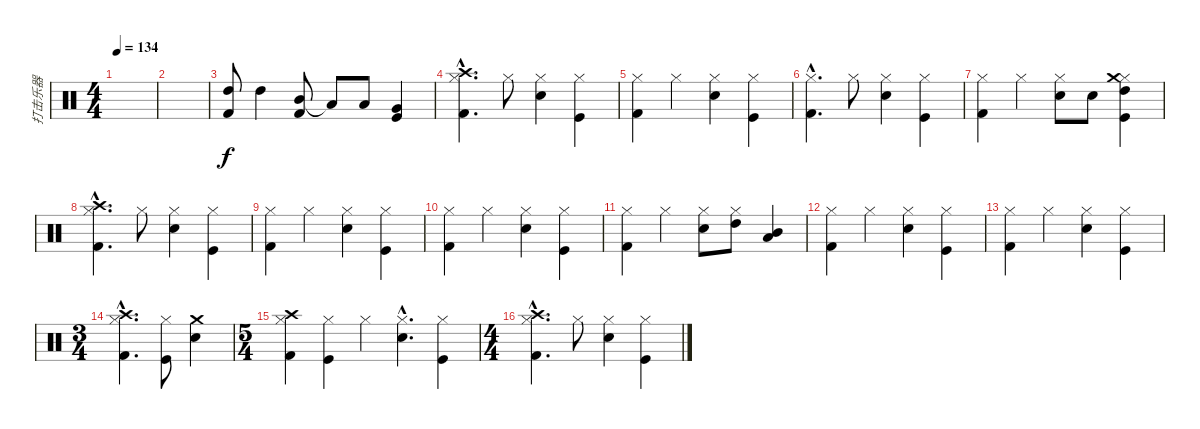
\track ("打击乐器" "打击乐器") {instrument percussion}
\staff {score}
\articulation defaults
\ts (4 4)
\tempo 134
\clef neutral
\ks c
|
|
("High Tom (hit)" "Kick (hit) 2").8 "High Tom (hit)".4 ("Mid Tom (hit)" "Kick (hit) 2").8 "Low Tom (hit)"{t}.8 "Low Tom (hit)".8 ("Very Low Tom (hit)" "Kick (hit)").4 |
("Kick (hit) 2"{hac} "Hi-Hat (closed)"{hac} "Crash high (hit)"{hac}).4{d} "Hi-Hat (closed)".8 ("Snare (hit) 2" "Hi-Hat (closed)").4 ("Hi-Hat (closed)" "Kick (hit)").4 |
("Hi-Hat (closed)" "Kick (hit) 2").4 "Hi-Hat (closed)".4 ("Hi-Hat (closed)" "Snare (hit) 2").4 ("Kick (hit)" "Hi-Hat (closed)").4 |
("Hi-Hat (closed)"{hac} "Kick (hit) 2"{hac}).4{d} "Hi-Hat (closed)".8 ("Hi-Hat (closed)" "Snare (hit) 2").4 ("Kick (hit)" "Hi-Hat (closed)").4 |
("Hi-Hat (closed)" "Kick (hit) 2").4 "Hi-Hat (closed)".4 ("Hi-Hat (closed)" "Snare (hit) 2").8 "Snare (hit) 2".8 ("Kick (hit)" "Hi-Hat (closed)" "High Tom (hit)" "Crash medium (hit)").4 |
("Kick (hit) 2"{hac} "Hi-Hat (closed)"{hac} "Crash high (hit)"{hac}).4{d} "Hi-Hat (closed)".8 ("Snare (hit) 2" "Hi-Hat (closed)").4 ("Hi-Hat (closed)" "Kick (hit)").4 |
("Hi-Hat (closed)" "Kick (hit) 2").4 "Hi-Hat (closed)".4 ("Hi-Hat (closed)" "Snare (hit) 2").4 ("Kick (hit)" "Hi-Hat (closed)").4 |
("Hi-Hat (closed)" "Kick (hit) 2").4 "Hi-Hat (closed)".4 ("Hi-Hat (closed)" "Snare (hit) 2").4 ("Kick (hit)" "Hi-Hat (closed)").4 |
("Kick (hit) 2" "Hi-Hat (closed)").4 "Hi-Hat (closed)".4 ("Snare (hit) 2" "Hi-Hat (closed)").8 ("High Tom (hit)" "Hi-Hat (closed)").8 ("Mid Tom (hit)" "Low Tom (hit)").4 |
("Kick (hit) 2" "Hi-Hat (closed)").4 "Hi-Hat (closed)".4 ("Snare (hit) 2" "Hi-Hat (closed)").4 ("Hi-Hat (closed)" "Kick (hit)").4 |
("Kick (hit) 2" "Hi-Hat (closed)").4 "Hi-Hat (closed)".4 ("Snare (hit) 2" "Hi-Hat (closed)").4 ("Hi-Hat (closed)" "Kick (hit)").4 |
\ts (3 4)
("Kick (hit) 2"{hac} "Hi-Hat (closed)"{hac} "Crash high (hit)"{hac}).4{d} ("Kick (hit)" "Hi-Hat (closed)").8 ("Snare (hit) 2" "Crash medium (hit)").4 |
\ts (5 4)
("Hi-Hat (closed)" "Kick (hit) 2" "Crash high (hit)").4 ("Hi-Hat (closed)" "Kick (hit)").4 "Hi-Hat (closed)".4 ("Hi-Hat (closed)"{hac} "Snare (hit) 2"{hac}).4{d} ("Hi-Hat (closed)" "Kick (hit)").4 |
\ts (4 4)
("Kick (hit) 2"{hac} "Hi-Hat (closed)"{hac} "Crash high (hit)"{hac}).4{d} "Hi-Hat (closed)".8 ("Snare (hit) 2" "Hi-Hat (closed)").4 ("Hi-Hat (closed)" "Kick (hit)").4
